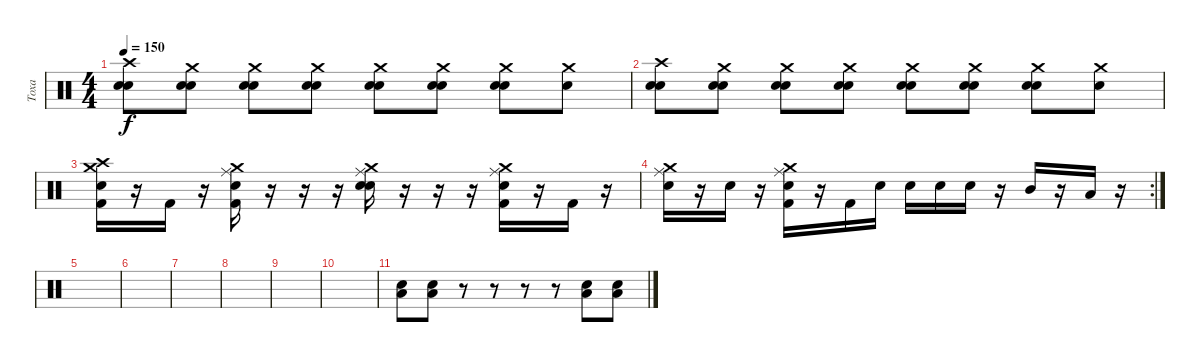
\track ("Тоха" "Тоха") {instrument percussion}
\staff {score}
\articulation defaults
\ts (4 4)
\tempo 150
\clef neutral
\ks c
("Crash high (hit)" "Snare (hit) 2" "Electric Snare (hit)").8{dy f} ("Crash medium (hit)" "Snare (hit) 2" "Electric Snare (hit)").8 ("Crash medium (hit)" "Snare (hit) 2" "Electric Snare (hit)").8 ("Crash medium (hit)" "Snare (hit) 2" "Electric Snare (hit)").8 ("Crash medium (hit)" "Snare (hit) 2" "Electric Snare (hit)").8 ("Crash medium (hit)" "Snare (hit) 2" "Electric Snare (hit)").8 ("Crash medium (hit)" "Snare (hit) 2" "Electric Snare (hit)").8 ("Crash medium (hit)" "Snare (hit) 2").8 |
("Crash high (hit)" "Snare (hit) 2" "Electric Snare (hit)").8 ("Crash medium (hit)" "Snare (hit) 2" "Electric Snare (hit)").8 ("Crash medium (hit)" "Snare (hit) 2" "Electric Snare (hit)").8 ("Crash medium (hit)" "Snare (hit) 2" "Electric Snare (hit)").8 ("Crash medium (hit)" "Snare (hit) 2" "Electric Snare (hit)").8 ("Crash medium (hit)" "Snare (hit) 2" "Electric Snare (hit)").8 ("Crash medium (hit)" "Snare (hit) 2" "Electric Snare (hit)").8 ("Crash medium (hit)" "Snare (hit) 2").8 |
("Crash high (hit)" "Crash medium (hit)" "Snare (hit) 2" "Kick (hit) 2").16 r.16 "Kick (hit) 2".16 r.16 ("Ride (middle)" "Crash medium (hit)" "Snare (hit) 2" "Kick (hit) 2").16 r.16 r.16 r.16 ("Ride (middle)" "Crash medium (hit)" "Snare (hit) 2" "Electric Snare (hit)").16 r.16 r.16 r.16 ("Ride (middle)" "Crash medium (hit)" "Snare (hit) 2" "Kick (hit) 2").16 r.16 "Kick (hit) 2".16 r.16 |
\rc 2
("Ride (middle)" "Crash medium (hit)" "Snare (hit) 2").16 r.16 "Electric Snare (hit)".16 r.16 ("Ride (middle)" "Crash medium (hit)" "Snare (hit) 2" "Kick (hit) 2").16 r.16 "Kick (hit) 2".16 "Electric Snare (hit)".16 "Electric Snare (hit)".16 "Electric Snare (hit)".16 "Electric Snare (hit)".16 r.16 "Mid Tom (hit)".16 r.16 "Low Tom (hit)".16 r.16 |
|
|
|
|
|
|
("Electric Snare (hit)" "Low Floor Tom (hit)").8 ("Electric Snare (hit)" "Low Floor Tom (hit)").8 r.8 r.8 r.8 r.8 ("Electric Snare (hit)" "Low Floor Tom (hit)").8 ("Electric Snare (hit)" "Low Floor Tom (hit)").8
